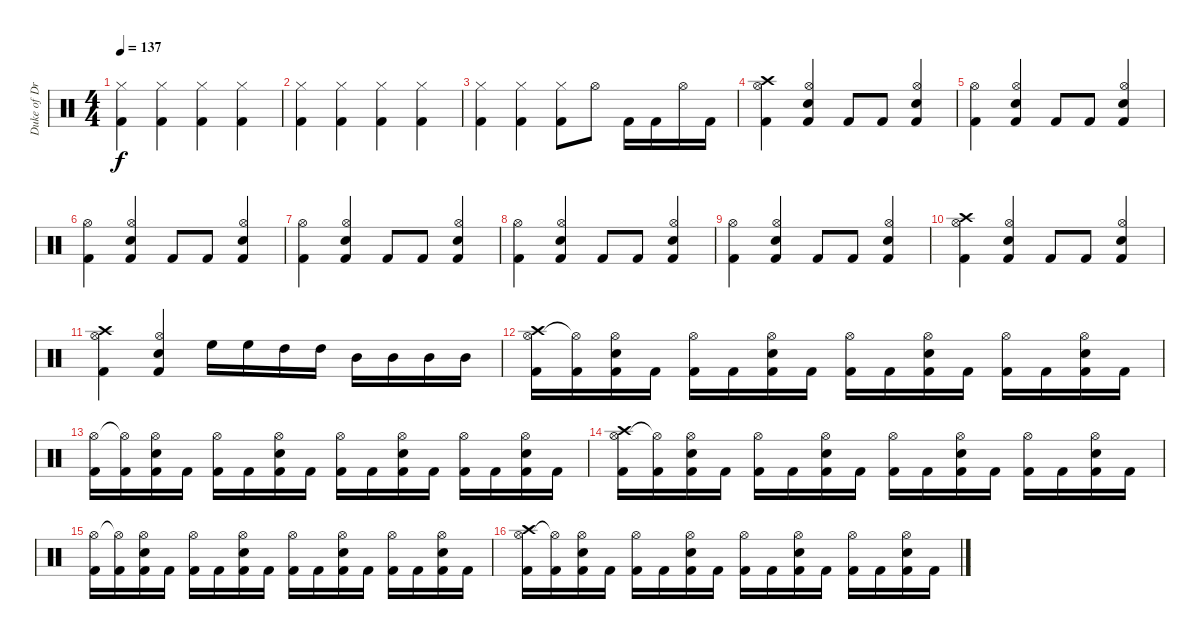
\track ("Duke of Drumington" "Duke of Dr") {instrument percussion}
\staff {score}
\articulation defaults
\ts (4 4)
\tempo 137
\clef neutral
\ks c
("Hi-Hat (closed)" "Kick (hit) 2").4{dy f} ("Hi-Hat (closed)" "Kick (hit) 2").4 ("Hi-Hat (closed)" "Kick (hit) 2").4 ("Hi-Hat (closed)" "Kick (hit) 2").4 |
("Hi-Hat (closed)" "Kick (hit) 2").4 ("Hi-Hat (closed)" "Kick (hit) 2").4 ("Hi-Hat (closed)" "Kick (hit) 2").4 ("Hi-Hat (closed)" "Kick (hit) 2").4 |
("Hi-Hat (closed)" "Kick (hit) 2").4 ("Hi-Hat (closed)" "Kick (hit) 2").4 ("Hi-Hat (closed)" "Kick (hit) 2").8 "Hi-Hat (open)".8 "Kick (hit) 2".16 "Kick (hit) 2".16 "Hi-Hat (open)".16 "Kick (hit) 2".16 |
("Crash high (hit)" "Hi-Hat (open)" "Kick (hit) 2").4 ("Hi-Hat (open)" "Snare (hit) 2" "Kick (hit) 2").4 "Kick (hit) 2".8 "Kick (hit) 2".8 ("Hi-Hat (open)" "Snare (hit) 2" "Kick (hit) 2").4 |
("Hi-Hat (open)" "Kick (hit) 2").4 ("Hi-Hat (open)" "Snare (hit) 2" "Kick (hit) 2").4 "Kick (hit) 2".8 "Kick (hit) 2".8 ("Hi-Hat (open)" "Snare (hit) 2" "Kick (hit) 2").4 |
("Hi-Hat (open)" "Kick (hit) 2").4 ("Hi-Hat (open)" "Snare (hit) 2" "Kick (hit) 2").4 "Kick (hit) 2".8 "Kick (hit) 2".8 ("Hi-Hat (open)" "Snare (hit) 2" "Kick (hit) 2").4 |
("Hi-Hat (open)" "Kick (hit) 2").4 ("Hi-Hat (open)" "Snare (hit) 2" "Kick (hit) 2").4 "Kick (hit) 2".8 "Kick (hit) 2".8 ("Hi-Hat (open)" "Snare (hit) 2" "Kick (hit) 2").4 |
("Hi-Hat (open)" "Kick (hit) 2").4 ("Hi-Hat (open)" "Snare (hit) 2" "Kick (hit) 2").4 "Kick (hit) 2".8 "Kick (hit) 2".8 ("Hi-Hat (open)" "Snare (hit) 2" "Kick (hit) 2").4 |
("Hi-Hat (open)" "Kick (hit) 2").4 ("Hi-Hat (open)" "Snare (hit) 2" "Kick (hit) 2").4 "Kick (hit) 2".8 "Kick (hit) 2".8 ("Hi-Hat (open)" "Snare (hit) 2" "Kick (hit) 2").4 |
("Crash high (hit)" "Hi-Hat (open)" "Kick (hit) 2").4 ("Hi-Hat (open)" "Snare (hit) 2" "Kick (hit) 2").4 "Kick (hit) 2".8 "Kick (hit) 2".8 ("Hi-Hat (open)" "Snare (hit) 2" "Kick (hit) 2").4 |
("Crash high (hit)" "Hi-Hat (open)" "Kick (hit) 2").4 ("Hi-Hat (open)" "Snare (hit) 2" "Kick (hit) 2").4 "High Floor Tom (hit)".16 "High Floor Tom (hit)".16 "High Tom (hit)".16 "High Tom (hit)".16 "Mid Tom (hit)".16 "Mid Tom (hit)".16 "Mid Tom (hit)".16 "Mid Tom (hit)".16 |
("Hi-Hat (open)" "Crash high (hit)" "Kick (hit) 2").16 ("Hi-Hat (open)"{t} "Kick (hit) 2").16 ("Hi-Hat (open)" "Snare (hit) 2" "Kick (hit) 2").16 "Kick (hit) 2".16 ("Hi-Hat (open)" "Kick (hit) 2").16 "Kick (hit) 2".16 ("Hi-Hat (open)" "Snare (hit) 2" "Kick (hit) 2").16 "Kick (hit) 2".16 ("Hi-Hat (open)" "Kick (hit) 2").16 "Kick (hit) 2".16 ("Hi-Hat (open)" "Snare (hit) 2" "Kick (hit) 2").16 "Kick (hit) 2".16 ("Hi-Hat (open)" "Kick (hit) 2").16 "Kick (hit) 2".16 ("Hi-Hat (open)" "Snare (hit) 2" "Kick (hit) 2").16 "Kick (hit) 2".16 |
("Hi-Hat (open)" "Kick (hit) 2").16 ("Hi-Hat (open)"{t} "Kick (hit) 2").16 ("Hi-Hat (open)" "Snare (hit) 2" "Kick (hit) 2").16 "Kick (hit) 2".16 ("Hi-Hat (open)" "Kick (hit) 2").16 "Kick (hit) 2".16 ("Hi-Hat (open)" "Snare (hit) 2" "Kick (hit) 2").16 "Kick (hit) 2".16 ("Hi-Hat (open)" "Kick (hit) 2").16 "Kick (hit) 2".16 ("Hi-Hat (open)" "Snare (hit) 2" "Kick (hit) 2").16 "Kick (hit) 2".16 ("Hi-Hat (open)" "Kick (hit) 2").16 "Kick (hit) 2".16 ("Hi-Hat (open)" "Snare (hit) 2" "Kick (hit) 2").16 "Kick (hit) 2".16 |
("Hi-Hat (open)" "Crash high (hit)" "Kick (hit) 2").16 ("Hi-Hat (open)"{t} "Kick (hit) 2").16 ("Hi-Hat (open)" "Snare (hit) 2" "Kick (hit) 2").16 "Kick (hit) 2".16 ("Hi-Hat (open)" "Kick (hit) 2").16 "Kick (hit) 2".16 ("Hi-Hat (open)" "Snare (hit) 2" "Kick (hit) 2").16 "Kick (hit) 2".16 ("Hi-Hat (open)" "Kick (hit) 2").16 "Kick (hit) 2".16 ("Hi-Hat (open)" "Snare (hit) 2" "Kick (hit) 2").16 "Kick (hit) 2".16 ("Hi-Hat (open)" "Kick (hit) 2").16 "Kick (hit) 2".16 ("Hi-Hat (open)" "Snare (hit) 2" "Kick (hit) 2").16 "Kick (hit) 2".16 |
("Hi-Hat (open)" "Kick (hit) 2").16 ("Hi-Hat (open)"{t} "Kick (hit) 2").16 ("Hi-Hat (open)" "Snare (hit) 2" "Kick (hit) 2").16 "Kick (hit) 2".16 ("Hi-Hat (open)" "Kick (hit) 2").16 "Kick (hit) 2".16 ("Hi-Hat (open)" "Snare (hit) 2" "Kick (hit) 2").16 "Kick (hit) 2".16 ("Hi-Hat (open)" "Kick (hit) 2").16 "Kick (hit) 2".16 ("Hi-Hat (open)" "Snare (hit) 2" "Kick (hit) 2").16 "Kick (hit) 2".16 ("Hi-Hat (open)" "Kick (hit) 2").16 "Kick (hit) 2".16 ("Hi-Hat (open)" "Snare (hit) 2" "Kick (hit) 2").16 "Kick (hit) 2".16 |
("Hi-Hat (open)" "Crash high (hit)" "Kick (hit) 2").16 ("Hi-Hat (open)"{t} "Kick (hit) 2").16 ("Hi-Hat (open)" "Snare (hit) 2" "Kick (hit) 2").16 "Kick (hit) 2".16 ("Hi-Hat (open)" "Kick (hit) 2").16 "Kick (hit) 2".16 ("Hi-Hat (open)" "Snare (hit) 2" "Kick (hit) 2").16 "Kick (hit) 2".16 ("Hi-Hat (open)" "Kick (hit) 2").16 "Kick (hit) 2".16 ("Hi-Hat (open)" "Snare (hit) 2" "Kick (hit) 2").16 "Kick (hit) 2".16 ("Hi-Hat (open)" "Kick (hit) 2").16 "Kick (hit) 2".16 ("Hi-Hat (open)" "Snare (hit) 2" "Kick (hit) 2").16 "Kick (hit) 2".16
